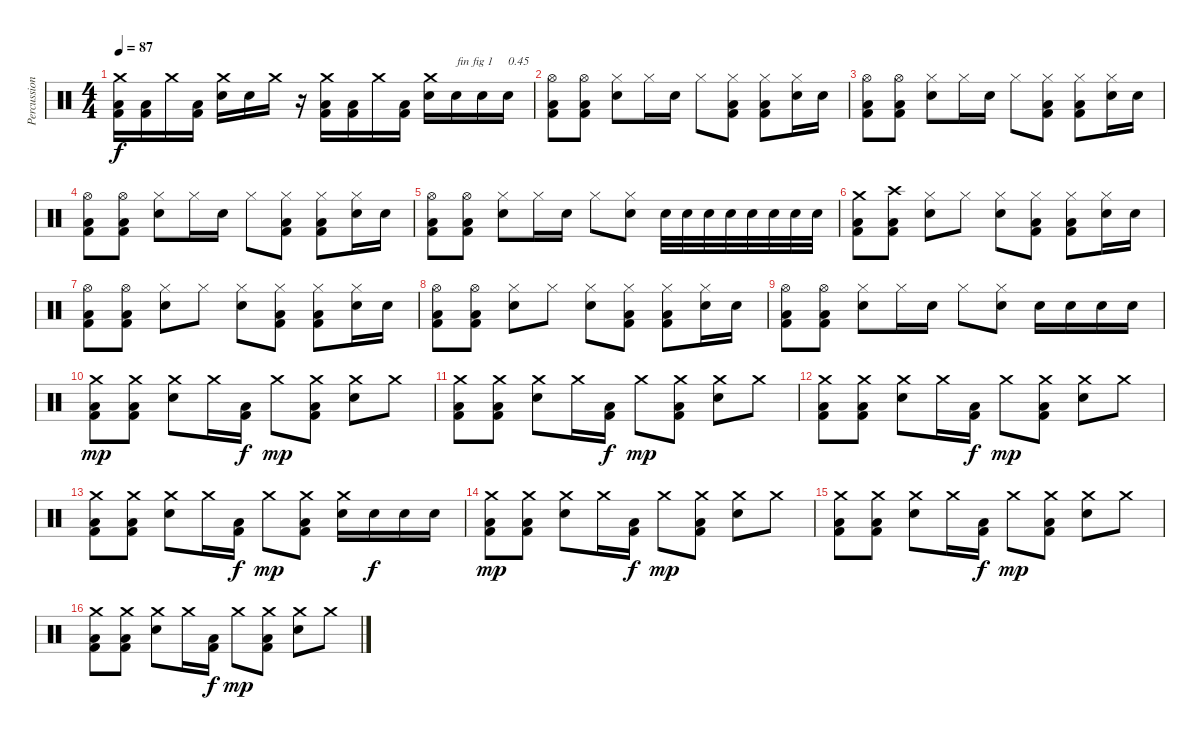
\track ("Percussions" "Percussion") {instrument percussion}
\staff {score}
\articulation defaults
\ts (4 4)
\tempo 87
\clef neutral
\ks c
("Kick (hit) 2" "Low Floor Tom (hit)" "Crash medium (hit)").16{dy f} ("Kick (hit) 2" "Low Floor Tom (hit)").16 "Crash medium (hit)".16 ("Kick (hit) 2" "Low Floor Tom (hit)").16 ("Electric Snare (hit)" "Crash medium (hit)").16 "Electric Snare (hit)".16 "Crash medium (hit)".16 r.16 ("Kick (hit) 2" "Low Floor Tom (hit)" "Crash medium (hit)").16 ("Kick (hit) 2" "Low Floor Tom (hit)").16 "Crash medium (hit)".16 ("Kick (hit) 2" "Low Floor Tom (hit)").16 ("Electric Snare (hit)" "Crash medium (hit)").16 "Electric Snare (hit)".16{txt "fin fig 1"} "Electric Snare (hit)".16 "Electric Snare (hit)".16{txt "0.45"} |
("Kick (hit) 2" "Low Floor Tom (hit)" "Hi-Hat (open)").8 ("Kick (hit) 2" "Low Floor Tom (hit)" "Hi-Hat (open)").8 ("Electric Snare (hit)" "Hi-Hat (closed)").8 "Hi-Hat (closed)".16 "Electric Snare (hit)".16 "Hi-Hat (closed)".8 ("Kick (hit) 2" "Low Floor Tom (hit)" "Hi-Hat (closed)").8 ("Kick (hit) 2" "Low Floor Tom (hit)" "Hi-Hat (closed)").8 ("Electric Snare (hit)" "Hi-Hat (closed)").16 "Electric Snare (hit)".16 |
("Kick (hit) 2" "Low Floor Tom (hit)" "Hi-Hat (open)").8 ("Kick (hit) 2" "Low Floor Tom (hit)" "Hi-Hat (open)").8 ("Electric Snare (hit)" "Hi-Hat (closed)").8 "Hi-Hat (closed)".16 "Electric Snare (hit)".16 "Hi-Hat (closed)".8 ("Kick (hit) 2" "Low Floor Tom (hit)" "Hi-Hat (closed)").8 ("Kick (hit) 2" "Low Floor Tom (hit)" "Hi-Hat (closed)").8 ("Electric Snare (hit)" "Hi-Hat (closed)").16 "Electric Snare (hit)".16 |
("Kick (hit) 2" "Low Floor Tom (hit)" "Hi-Hat (open)").8 ("Kick (hit) 2" "Low Floor Tom (hit)" "Hi-Hat (open)").8 ("Electric Snare (hit)" "Hi-Hat (closed)").8 "Hi-Hat (closed)".16 "Electric Snare (hit)".16 "Hi-Hat (closed)".8 ("Kick (hit) 2" "Low Floor Tom (hit)" "Hi-Hat (closed)").8 ("Kick (hit) 2" "Low Floor Tom (hit)" "Hi-Hat (closed)").8 ("Electric Snare (hit)" "Hi-Hat (closed)").16 "Electric Snare (hit)".16 |
("Kick (hit) 2" "Low Floor Tom (hit)" "Hi-Hat (open)").8 ("Kick (hit) 2" "Low Floor Tom (hit)" "Hi-Hat (open)").8 ("Electric Snare (hit)" "Hi-Hat (closed)").8 "Hi-Hat (closed)".16 "Electric Snare (hit)".16 "Hi-Hat (closed)".8 ("Electric Snare (hit)" "Hi-Hat (closed)").8 "Electric Snare (hit)".32 "Electric Snare (hit)".32 "Electric Snare (hit)".32 "Electric Snare (hit)".32 "Electric Snare (hit)".32 "Electric Snare (hit)".32 "Electric Snare (hit)".32 "Electric Snare (hit)".32 |
("Kick (hit) 2" "Low Floor Tom (hit)" "Crash medium (hit)").8 ("Kick (hit) 2" "Low Floor Tom (hit)" "Crash high (hit)").8 ("Electric Snare (hit)" "Hi-Hat (closed)").8 "Hi-Hat (closed)".8 ("Electric Snare (hit)" "Hi-Hat (closed)").8 ("Kick (hit) 2" "Low Floor Tom (hit)" "Hi-Hat (closed)").8 ("Kick (hit) 2" "Low Floor Tom (hit)" "Hi-Hat (closed)").8 ("Electric Snare (hit)" "Hi-Hat (closed)").16 "Electric Snare (hit)".16 |
("Kick (hit) 2" "Low Floor Tom (hit)" "Hi-Hat (open)").8 ("Kick (hit) 2" "Low Floor Tom (hit)" "Hi-Hat (open)").8 ("Electric Snare (hit)" "Hi-Hat (closed)").8 "Hi-Hat (closed)".8 ("Electric Snare (hit)" "Hi-Hat (closed)").8 ("Kick (hit) 2" "Low Floor Tom (hit)" "Hi-Hat (closed)").8 ("Kick (hit) 2" "Low Floor Tom (hit)" "Hi-Hat (closed)").8 ("Electric Snare (hit)" "Hi-Hat (closed)").16 "Electric Snare (hit)".16 |
("Kick (hit) 2" "Low Floor Tom (hit)" "Hi-Hat (open)").8 ("Kick (hit) 2" "Low Floor Tom (hit)" "Hi-Hat (open)").8 ("Electric Snare (hit)" "Hi-Hat (closed)").8 "Hi-Hat (closed)".8 ("Electric Snare (hit)" "Hi-Hat (closed)").8 ("Kick (hit) 2" "Low Floor Tom (hit)" "Hi-Hat (closed)").8 ("Kick (hit) 2" "Low Floor Tom (hit)" "Hi-Hat (closed)").8 ("Electric Snare (hit)" "Hi-Hat (closed)").16 "Electric Snare (hit)".16 |
("Kick (hit) 2" "Low Floor Tom (hit)" "Hi-Hat (open)").8 ("Kick (hit) 2" "Low Floor Tom (hit)" "Hi-Hat (open)").8 ("Electric Snare (hit)" "Hi-Hat (closed)").8 "Hi-Hat (closed)".16 "Electric Snare (hit)".16 "Hi-Hat (closed)".8 ("Electric Snare (hit)" "Hi-Hat (closed)").8 "Electric Snare (hit)".16 "Electric Snare (hit)".16 "Electric Snare (hit)".16 "Electric Snare (hit)".16 |
("Kick (hit) 2" "Low Floor Tom (hit)" "Crash medium (hit)").8{dy mp} ("Kick (hit) 2" "Low Floor Tom (hit)" "Crash medium (hit)").8 ("Electric Snare (hit)" "Crash medium (hit)").8 "Crash medium (hit)".16 ("Kick (hit) 2" "Low Floor Tom (hit)").16{dy f} "Crash medium (hit)".8{dy mp} ("Kick (hit) 2" "Low Floor Tom (hit)" "Crash medium (hit)").8 ("Electric Snare (hit)" "Crash medium (hit)").8 "Crash medium (hit)".8 |
("Kick (hit) 2" "Low Floor Tom (hit)" "Crash medium (hit)").8 ("Kick (hit) 2" "Low Floor Tom (hit)" "Crash medium (hit)").8 ("Electric Snare (hit)" "Crash medium (hit)").8 "Crash medium (hit)".16 ("Kick (hit) 2" "Low Floor Tom (hit)").16{dy f} "Crash medium (hit)".8{dy mp} ("Kick (hit) 2" "Low Floor Tom (hit)" "Crash medium (hit)").8 ("Electric Snare (hit)" "Crash medium (hit)").8 "Crash medium (hit)".8 |
("Kick (hit) 2" "Low Floor Tom (hit)" "Crash medium (hit)").8 ("Kick (hit) 2" "Low Floor Tom (hit)" "Crash medium (hit)").8 ("Electric Snare (hit)" "Crash medium (hit)").8 "Crash medium (hit)".16 ("Kick (hit) 2" "Low Floor Tom (hit)").16{dy f} "Crash medium (hit)".8{dy mp} ("Kick (hit) 2" "Low Floor Tom (hit)" "Crash medium (hit)").8 ("Electric Snare (hit)" "Crash medium (hit)").8 "Crash medium (hit)".8 |
("Kick (hit) 2" "Low Floor Tom (hit)" "Crash medium (hit)").8 ("Kick (hit) 2" "Low Floor Tom (hit)" "Crash medium (hit)").8 ("Electric Snare (hit)" "Crash medium (hit)").8 "Crash medium (hit)".16 ("Kick (hit) 2" "Low Floor Tom (hit)").16{dy f} "Crash medium (hit)".8{dy mp} ("Kick (hit) 2" "Low Floor Tom (hit)" "Crash medium (hit)").8 ("Electric Snare (hit)" "Crash medium (hit)").16 "Electric Snare (hit)".16{dy f} "Electric Snare (hit)".16 "Electric Snare (hit)".16 |
("Kick (hit) 2" "Low Floor Tom (hit)" "Crash medium (hit)").8{dy mp} ("Kick (hit) 2" "Low Floor Tom (hit)" "Crash medium (hit)").8 ("Electric Snare (hit)" "Crash medium (hit)").8 "Crash medium (hit)".16 ("Kick (hit) 2" "Low Floor Tom (hit)").16{dy f} "Crash medium (hit)".8{dy mp} ("Kick (hit) 2" "Low Floor Tom (hit)" "Crash medium (hit)").8 ("Electric Snare (hit)" "Crash medium (hit)").8 "Crash medium (hit)".8 |
("Kick (hit) 2" "Low Floor Tom (hit)" "Crash medium (hit)").8 ("Kick (hit) 2" "Low Floor Tom (hit)" "Crash medium (hit)").8 ("Electric Snare (hit)" "Crash medium (hit)").8 "Crash medium (hit)".16 ("Kick (hit) 2" "Low Floor Tom (hit)").16{dy f} "Crash medium (hit)".8{dy mp} ("Kick (hit) 2" "Low Floor Tom (hit)" "Crash medium (hit)").8 ("Electric Snare (hit)" "Crash medium (hit)").8 "Crash medium (hit)".8 |
("Kick (hit) 2" "Low Floor Tom (hit)" "Crash medium (hit)").8 ("Kick (hit) 2" "Low Floor Tom (hit)" "Crash medium (hit)").8 ("Electric Snare (hit)" "Crash medium (hit)").8 "Crash medium (hit)".16 ("Kick (hit) 2" "Low Floor Tom (hit)").16{dy f} "Crash medium (hit)".8{dy mp} ("Kick (hit) 2" "Low Floor Tom (hit)" "Crash medium (hit)").8 ("Electric Snare (hit)" "Crash medium (hit)").8 "Crash medium (hit)".8
